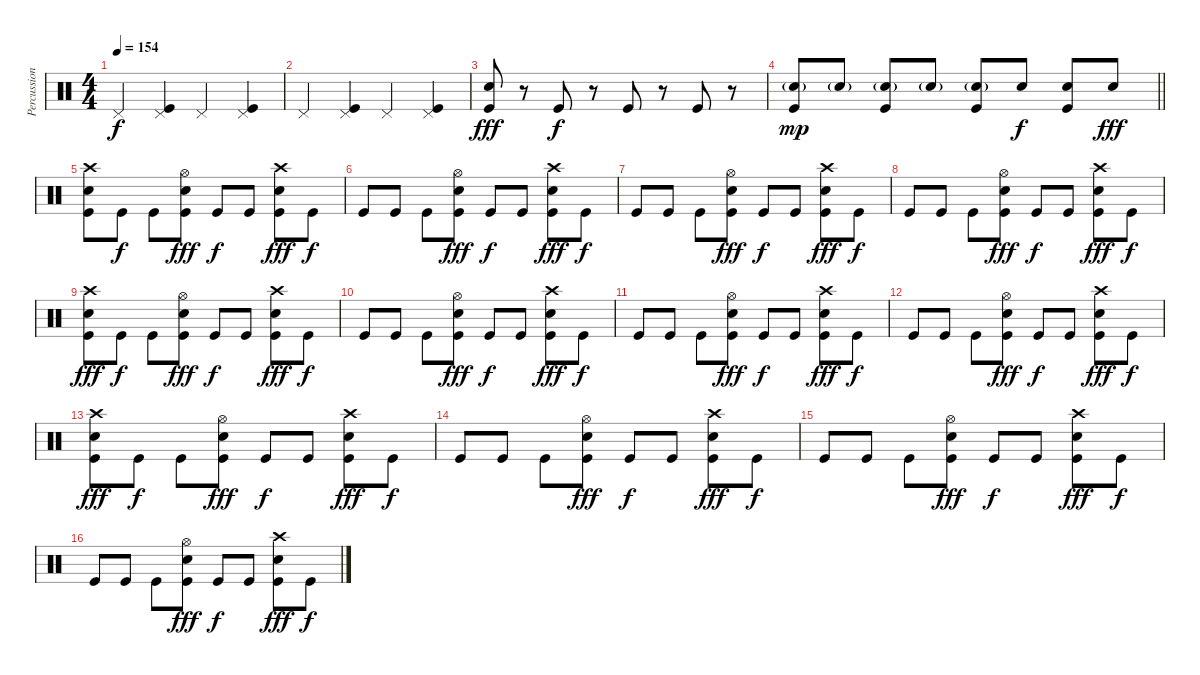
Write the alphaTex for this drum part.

\track ("Percussion" "Percussion") {instrument percussion}
\staff {score}
\articulation defaults
\ts (4 4)
\tempo 154
\clef neutral
\ks c "Pedal Hi-Hat (hit)".4{dy f}
("Pedal Hi-Hat (hit)" "Kick (hit)").4 "Pedal Hi-Hat (hit)".4 ("Pedal Hi-Hat (hit)" "Kick (hit)").4 |
"Pedal Hi-Hat (hit)".4 ("Pedal Hi-Hat (hit)" "Kick (hit)").4 "Pedal Hi-Hat (hit)".4 ("Pedal Hi-Hat (hit)" "Kick (hit)").4 |
("Kick (hit)" "Electric Snare (hit)").8{dy fff} r.8 "Kick (hit)".8{dy f} r.8 "Kick (hit)".8 r.8 "Kick (hit)".8 r.8 |
\barLineRight lightlight
("Kick (hit)" "Electric Snare (hit)"{g}).8{dy mp} "Electric Snare (hit)"{g}.8 ("Kick (hit)" "Electric Snare (hit)"{g}).8 "Electric Snare (hit)"{g}.8 ("Kick (hit)" "Electric Snare (hit)"{g}).8 "Electric Snare (hit)".8{dy f} ("Kick (hit)" "Electric Snare (hit)").8 "Electric Snare (hit)".8{dy fff} |
("Kick (hit)" "Crash high (hit)" "Electric Snare (hit)").8 "Kick (hit)".8{dy f} "Kick (hit)".8 ("Kick (hit)" "Electric Snare (hit)" "Hi-Hat (open)").8{dy fff} "Kick (hit)".8{dy f} "Kick (hit)".8 ("Electric Snare (hit)" "Kick (hit)" "Crash high (hit)").8{dy fff} "Kick (hit)".8{dy f} |
"Kick (hit)".8 "Kick (hit)".8 "Kick (hit)".8 ("Kick (hit)" "Electric Snare (hit)" "Hi-Hat (open)").8{dy fff} "Kick (hit)".8{dy f} "Kick (hit)".8 ("Kick (hit)" "Electric Snare (hit)" "Crash high (hit)").8{dy fff} "Kick (hit)".8{dy f} |
"Kick (hit)".8 "Kick (hit)".8 "Kick (hit)".8 ("Kick (hit)" "Electric Snare (hit)" "Hi-Hat (open)").8{dy fff} "Kick (hit)".8{dy f} "Kick (hit)".8 ("Kick (hit)" "Electric Snare (hit)" "Crash high (hit)").8{dy fff} "Kick (hit)".8{dy f} |
"Kick (hit)".8 "Kick (hit)".8 "Kick (hit)".8 ("Kick (hit)" "Electric Snare (hit)" "Hi-Hat (open)").8{dy fff} "Kick (hit)".8{dy f} "Kick (hit)".8 ("Kick (hit)" "Electric Snare (hit)" "Crash high (hit)").8{dy fff} "Kick (hit)".8{dy f} |
("Kick (hit)" "Crash high (hit)" "Electric Snare (hit)").8{dy fff} "Kick (hit)".8{dy f} "Kick (hit)".8 ("Kick (hit)" "Electric Snare (hit)" "Hi-Hat (open)").8{dy fff} "Kick (hit)".8{dy f} "Kick (hit)".8 ("Electric Snare (hit)" "Kick (hit)" "Crash high (hit)").8{dy fff} "Kick (hit)".8{dy f} |
"Kick (hit)".8 "Kick (hit)".8 "Kick (hit)".8 ("Kick (hit)" "Electric Snare (hit)" "Hi-Hat (open)").8{dy fff} "Kick (hit)".8{dy f} "Kick (hit)".8 ("Kick (hit)" "Electric Snare (hit)" "Crash high (hit)").8{dy fff} "Kick (hit)".8{dy f} |
"Kick (hit)".8 "Kick (hit)".8 "Kick (hit)".8 ("Kick (hit)" "Electric Snare (hit)" "Hi-Hat (open)").8{dy fff} "Kick (hit)".8{dy f} "Kick (hit)".8 ("Kick (hit)" "Electric Snare (hit)" "Crash high (hit)").8{dy fff} "Kick (hit)".8{dy f} |
"Kick (hit)".8 "Kick (hit)".8 "Kick (hit)".8 ("Kick (hit)" "Electric Snare (hit)" "Hi-Hat (open)").8{dy fff} "Kick (hit)".8{dy f} "Kick (hit)".8 ("Kick (hit)" "Electric Snare (hit)" "Crash high (hit)").8{dy fff} "Kick (hit)".8{dy f} |
("Kick (hit)" "Crash high (hit)" "Electric Snare (hit)").8{dy fff} "Kick (hit)".8{dy f} "Kick (hit)".8 ("Kick (hit)" "Electric Snare (hit)" "Hi-Hat (open)").8{dy fff} "Kick (hit)".8{dy f} "Kick (hit)".8 ("Electric Snare (hit)" "Kick (hit)" "Crash high (hit)").8{dy fff} "Kick (hit)".8{dy f} |
"Kick (hit)".8 "Kick (hit)".8 "Kick (hit)".8 ("Kick (hit)" "Electric Snare (hit)" "Hi-Hat (open)").8{dy fff} "Kick (hit)".8{dy f} "Kick (hit)".8 ("Kick (hit)" "Electric Snare (hit)" "Crash high (hit)").8{dy fff} "Kick (hit)".8{dy f} |
"Kick (hit)".8 "Kick (hit)".8 "Kick (hit)".8 ("Kick (hit)" "Electric Snare (hit)" "Hi-Hat (open)").8{dy fff} "Kick (hit)".8{dy f} "Kick (hit)".8 ("Kick (hit)" "Electric Snare (hit)" "Crash high (hit)").8{dy fff} "Kick (hit)".8{dy f} |
"Kick (hit)".8 "Kick (hit)".8 "Kick (hit)".8 ("Kick (hit)" "Electric Snare (hit)" "Hi-Hat (open)").8{dy fff} "Kick (hit)".8{dy f} "Kick (hit)".8 ("Kick (hit)" "Electric Snare (hit)" "Crash high (hit)").8{dy fff} "Kick (hit)".8{dy f}
